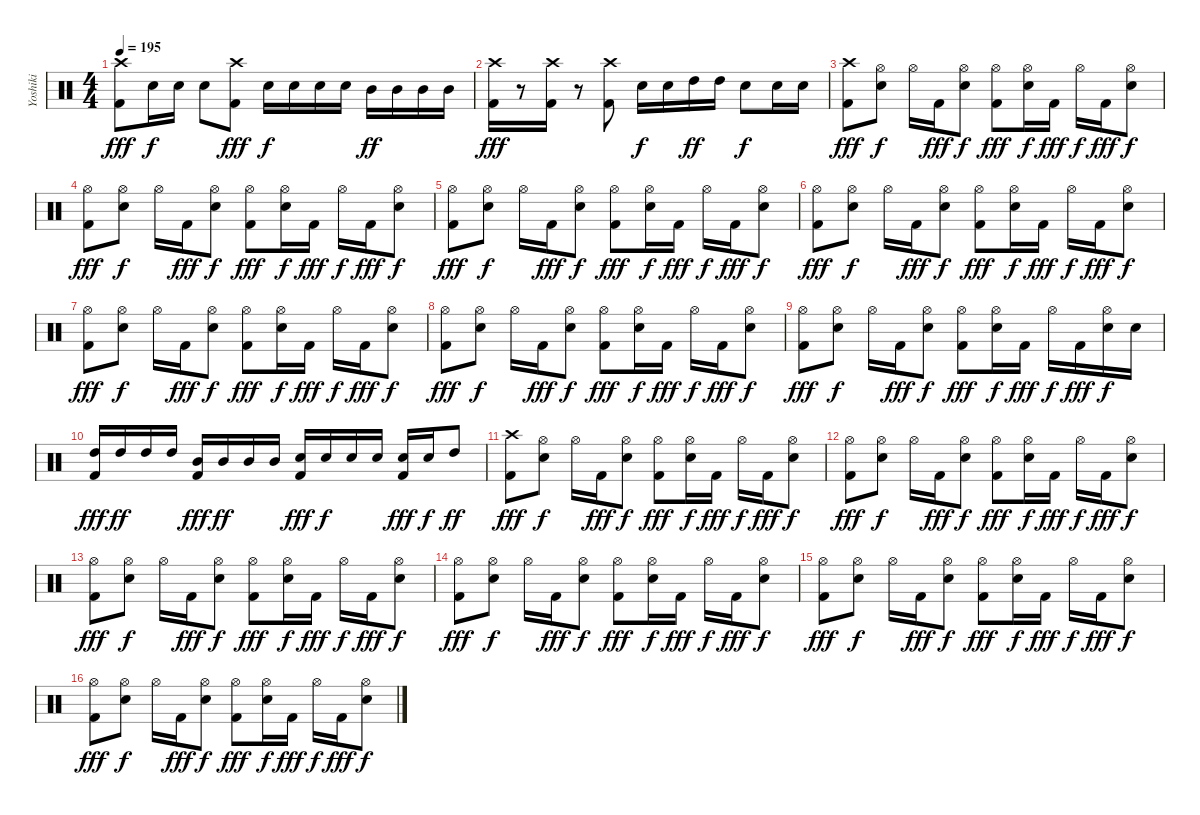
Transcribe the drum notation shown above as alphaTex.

\track ("Yoshiki" "Yoshiki") {instrument percussion}
\staff {score}
\articulation defaults
\ts (4 4)
\tempo 195
\clef neutral
\ks c
("Crash high (hit)" "Kick (hit) 2").8{dy fff} "Electric Snare (hit)".16{dy f} "Electric Snare (hit)".16 "Electric Snare (hit)".8 ("Crash high (hit)" "Kick (hit) 2").8{dy fff} "Electric Snare (hit)".16{dy f} "Electric Snare (hit)".16 "Electric Snare (hit)".16 "Electric Snare (hit)".16 "Mid Tom (hit)".16{dy ff} "Mid Tom (hit)".16 "Mid Tom (hit)".16 "Mid Tom (hit)".16 |
("Crash high (hit)" "Kick (hit) 2").16{dy fff} r.8 ("Crash high (hit)" "Kick (hit) 2").16 r.8 ("Crash high (hit)" "Kick (hit) 2").8 "Electric Snare (hit)".16{dy f} "Electric Snare (hit)".16 "High Tom (hit)".16{dy ff} "High Tom (hit)".16 "Electric Snare (hit)".8{dy f} "Electric Snare (hit)".16 "Electric Snare (hit)".16 |
("Crash high (hit)" "Kick (hit) 2").8{dy fff} ("Hi-Hat (open)" "Electric Snare (hit)").8{dy f} "Hi-Hat (open)".16 "Kick (hit) 2".16{dy fff} ("Hi-Hat (open)" "Electric Snare (hit)").8{dy f} ("Hi-Hat (open)" "Kick (hit) 2").8{dy fff} ("Hi-Hat (open)" "Electric Snare (hit)").16{dy f} "Kick (hit) 2".16{dy fff} "Hi-Hat (open)".16{dy f} "Kick (hit) 2".16{dy fff} ("Hi-Hat (open)" "Electric Snare (hit)").8{dy f} |
("Hi-Hat (open)" "Kick (hit) 2").8{dy fff} ("Hi-Hat (open)" "Electric Snare (hit)").8{dy f} "Hi-Hat (open)".16 "Kick (hit) 2".16{dy fff} ("Hi-Hat (open)" "Electric Snare (hit)").8{dy f} ("Hi-Hat (open)" "Kick (hit) 2").8{dy fff} ("Hi-Hat (open)" "Electric Snare (hit)").16{dy f} "Kick (hit) 2".16{dy fff} "Hi-Hat (open)".16{dy f} "Kick (hit) 2".16{dy fff} ("Hi-Hat (open)" "Electric Snare (hit)").8{dy f} |
("Hi-Hat (open)" "Kick (hit) 2").8{dy fff} ("Hi-Hat (open)" "Electric Snare (hit)").8{dy f} "Hi-Hat (open)".16 "Kick (hit) 2".16{dy fff} ("Hi-Hat (open)" "Electric Snare (hit)").8{dy f} ("Hi-Hat (open)" "Kick (hit) 2").8{dy fff} ("Hi-Hat (open)" "Electric Snare (hit)").16{dy f} "Kick (hit) 2".16{dy fff} "Hi-Hat (open)".16{dy f} "Kick (hit) 2".16{dy fff} ("Hi-Hat (open)" "Electric Snare (hit)").8{dy f} |
("Hi-Hat (open)" "Kick (hit) 2").8{dy fff} ("Hi-Hat (open)" "Electric Snare (hit)").8{dy f} "Hi-Hat (open)".16 "Kick (hit) 2".16{dy fff} ("Hi-Hat (open)" "Electric Snare (hit)").8{dy f} ("Hi-Hat (open)" "Kick (hit) 2").8{dy fff} ("Hi-Hat (open)" "Electric Snare (hit)").16{dy f} "Kick (hit) 2".16{dy fff} "Hi-Hat (open)".16{dy f} "Kick (hit) 2".16{dy fff} ("Hi-Hat (open)" "Electric Snare (hit)").8{dy f} |
("Hi-Hat (open)" "Kick (hit) 2").8{dy fff} ("Hi-Hat (open)" "Electric Snare (hit)").8{dy f} "Hi-Hat (open)".16 "Kick (hit) 2".16{dy fff} ("Hi-Hat (open)" "Electric Snare (hit)").8{dy f} ("Hi-Hat (open)" "Kick (hit) 2").8{dy fff} ("Hi-Hat (open)" "Electric Snare (hit)").16{dy f} "Kick (hit) 2".16{dy fff} "Hi-Hat (open)".16{dy f} "Kick (hit) 2".16{dy fff} ("Hi-Hat (open)" "Electric Snare (hit)").8{dy f} |
("Hi-Hat (open)" "Kick (hit) 2").8{dy fff} ("Hi-Hat (open)" "Electric Snare (hit)").8{dy f} "Hi-Hat (open)".16 "Kick (hit) 2".16{dy fff} ("Hi-Hat (open)" "Electric Snare (hit)").8{dy f} ("Hi-Hat (open)" "Kick (hit) 2").8{dy fff} ("Hi-Hat (open)" "Electric Snare (hit)").16{dy f} "Kick (hit) 2".16{dy fff} "Hi-Hat (open)".16{dy f} "Kick (hit) 2".16{dy fff} ("Hi-Hat (open)" "Electric Snare (hit)").8{dy f} |
("Hi-Hat (open)" "Kick (hit) 2").8{dy fff} ("Hi-Hat (open)" "Electric Snare (hit)").8{dy f} "Hi-Hat (open)".16 "Kick (hit) 2".16{dy fff} ("Hi-Hat (open)" "Electric Snare (hit)").8{dy f} ("Hi-Hat (open)" "Kick (hit) 2").8{dy fff} ("Hi-Hat (open)" "Electric Snare (hit)").16{dy f} "Kick (hit) 2".16{dy fff} "Hi-Hat (open)".16{dy f} "Kick (hit) 2".16{dy fff} ("Hi-Hat (open)" "Electric Snare (hit)").16{dy f} "Electric Snare (hit)".16 |
("High Tom (hit)" "Kick (hit) 2").16{dy fff} "High Tom (hit)".16{dy ff} "High Tom (hit)".16 "High Tom (hit)".16 ("Mid Tom (hit)" "Kick (hit) 2").16{dy fff} "Mid Tom (hit)".16{dy ff} "Mid Tom (hit)".16 "Mid Tom (hit)".16 ("Electric Snare (hit)" "Kick (hit) 2").16{dy fff} "Electric Snare (hit)".16{dy f} "Electric Snare (hit)".16 "Electric Snare (hit)".16 ("Electric Snare (hit)" "Kick (hit) 2").16{dy fff} "Electric Snare (hit)".16{dy f} "High Tom (hit)".8{dy ff} |
("Crash high (hit)" "Kick (hit) 2").8{dy fff} ("Hi-Hat (open)" "Electric Snare (hit)").8{dy f} "Hi-Hat (open)".16 "Kick (hit) 2".16{dy fff} ("Hi-Hat (open)" "Electric Snare (hit)").8{dy f} ("Hi-Hat (open)" "Kick (hit) 2").8{dy fff} ("Hi-Hat (open)" "Electric Snare (hit)").16{dy f} "Kick (hit) 2".16{dy fff} "Hi-Hat (open)".16{dy f} "Kick (hit) 2".16{dy fff} ("Hi-Hat (open)" "Electric Snare (hit)").8{dy f} |
("Hi-Hat (open)" "Kick (hit) 2").8{dy fff} ("Hi-Hat (open)" "Electric Snare (hit)").8{dy f} "Hi-Hat (open)".16 "Kick (hit) 2".16{dy fff} ("Hi-Hat (open)" "Electric Snare (hit)").8{dy f} ("Hi-Hat (open)" "Kick (hit) 2").8{dy fff} ("Hi-Hat (open)" "Electric Snare (hit)").16{dy f} "Kick (hit) 2".16{dy fff} "Hi-Hat (open)".16{dy f} "Kick (hit) 2".16{dy fff} ("Hi-Hat (open)" "Electric Snare (hit)").8{dy f} |
("Hi-Hat (open)" "Kick (hit) 2").8{dy fff} ("Hi-Hat (open)" "Electric Snare (hit)").8{dy f} "Hi-Hat (open)".16 "Kick (hit) 2".16{dy fff} ("Hi-Hat (open)" "Electric Snare (hit)").8{dy f} ("Hi-Hat (open)" "Kick (hit) 2").8{dy fff} ("Hi-Hat (open)" "Electric Snare (hit)").16{dy f} "Kick (hit) 2".16{dy fff} "Hi-Hat (open)".16{dy f} "Kick (hit) 2".16{dy fff} ("Hi-Hat (open)" "Electric Snare (hit)").8{dy f} |
("Hi-Hat (open)" "Kick (hit) 2").8{dy fff} ("Hi-Hat (open)" "Electric Snare (hit)").8{dy f} "Hi-Hat (open)".16 "Kick (hit) 2".16{dy fff} ("Hi-Hat (open)" "Electric Snare (hit)").8{dy f} ("Hi-Hat (open)" "Kick (hit) 2").8{dy fff} ("Hi-Hat (open)" "Electric Snare (hit)").16{dy f} "Kick (hit) 2".16{dy fff} "Hi-Hat (open)".16{dy f} "Kick (hit) 2".16{dy fff} ("Hi-Hat (open)" "Electric Snare (hit)").8{dy f} |
("Hi-Hat (open)" "Kick (hit) 2").8{dy fff} ("Hi-Hat (open)" "Electric Snare (hit)").8{dy f} "Hi-Hat (open)".16 "Kick (hit) 2".16{dy fff} ("Hi-Hat (open)" "Electric Snare (hit)").8{dy f} ("Hi-Hat (open)" "Kick (hit) 2").8{dy fff} ("Hi-Hat (open)" "Electric Snare (hit)").16{dy f} "Kick (hit) 2".16{dy fff} "Hi-Hat (open)".16{dy f} "Kick (hit) 2".16{dy fff} ("Hi-Hat (open)" "Electric Snare (hit)").8{dy f} |
("Hi-Hat (open)" "Kick (hit) 2").8{dy fff} ("Hi-Hat (open)" "Electric Snare (hit)").8{dy f} "Hi-Hat (open)".16 "Kick (hit) 2".16{dy fff} ("Hi-Hat (open)" "Electric Snare (hit)").8{dy f} ("Hi-Hat (open)" "Kick (hit) 2").8{dy fff} ("Hi-Hat (open)" "Electric Snare (hit)").16{dy f} "Kick (hit) 2".16{dy fff} "Hi-Hat (open)".16{dy f} "Kick (hit) 2".16{dy fff} ("Hi-Hat (open)" "Electric Snare (hit)").8{dy f}
